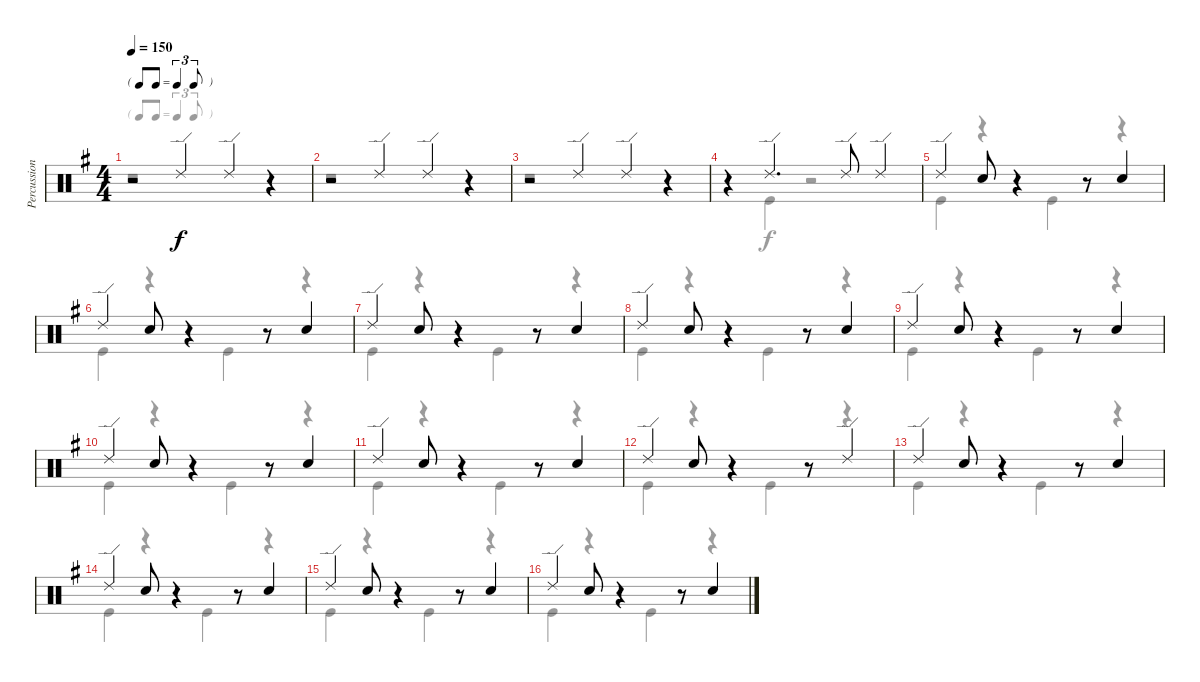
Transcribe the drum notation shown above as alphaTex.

\track ("Percussion" "Percussion") {instrument percussion}
\staff {score}
\articulation defaults
\voice
\ts (4 4)
\tf triplet8th
\tempo 150
\clef neutral
\ks g
r.2{dy f} "Ride (edge) 2".2 "Ride (edge) 2".4 r.4 |
r.2 "Ride (edge) 2".2 "Ride (edge) 2".4 r.4 |
r.2 "Ride (edge) 2".2 "Ride (edge) 2".4 r.4 |
r.4 "Ride (edge) 2".4{d} "Ride (edge) 2".8 "Ride (edge) 2".4 |
"Ride (edge) 2".4 "Electric Snare (hit)".8 r.4 r.8 "Electric Snare (hit)".4 |
"Ride (edge) 2".4 "Electric Snare (hit)".8 r.4 r.8 "Electric Snare (hit)".4 |
"Ride (edge) 2".4 "Electric Snare (hit)".8 r.4 r.8 "Electric Snare (hit)".4 |
"Ride (edge) 2".4 "Electric Snare (hit)".8 r.4 r.8 "Electric Snare (hit)".4 |
"Ride (edge) 2".4 "Electric Snare (hit)".8 r.4 r.8 "Electric Snare (hit)".4 |
"Ride (edge) 2".4 "Electric Snare (hit)".8 r.4 r.8 "Electric Snare (hit)".4 |
"Ride (edge) 2".4 "Electric Snare (hit)".8 r.4 r.8 "Electric Snare (hit)".4 |
"Ride (edge) 2".4 "Electric Snare (hit)".8 r.4 r.8 "Ride (edge) 2".4 |
"Ride (edge) 2".4 "Electric Snare (hit)".8 r.4 r.8 "Electric Snare (hit)".4 |
"Ride (edge) 2".4 "Electric Snare (hit)".8 r.4 r.8 "Electric Snare (hit)".4 |
"Ride (edge) 2".4 "Electric Snare (hit)".8 r.4 r.8 "Electric Snare (hit)".4 |
"Ride (edge) 2".4 "Electric Snare (hit)".8 r.4 r.8 "Electric Snare (hit)".4
\voice
\clef neutral
\ottava regular
\simile none
\ks g
r.1{dy f} |
r.1 |
r.1 |
r.4 "Kick (hit)".4 r.2 |
"Kick (hit)".4 r.4 "Kick (hit)".4 r.4 |
"Kick (hit)".4 r.4 "Kick (hit)".4 r.4 |
"Kick (hit)".4 r.4 "Kick (hit)".4 r.4 |
"Kick (hit)".4 r.4 "Kick (hit)".4 r.4 |
"Kick (hit)".4 r.4 "Kick (hit)".4 r.4 |
"Kick (hit)".4 r.4 "Kick (hit)".4 r.4 |
"Kick (hit)".4 r.4 "Kick (hit)".4 r.4 |
"Kick (hit)".4 r.4 "Kick (hit)".4 r.4 |
"Kick (hit)".4 r.4 "Kick (hit)".4 r.4 |
"Kick (hit)".4 r.4 "Kick (hit)".4 r.4 |
"Kick (hit)".4 r.4 "Kick (hit)".4 r.4 |
"Kick (hit)".4 r.4 "Kick (hit)".4 r.4
